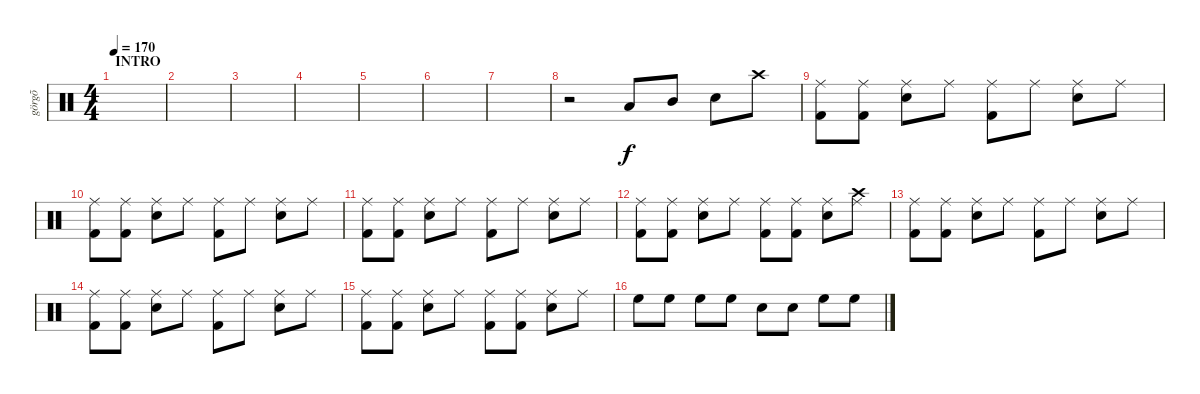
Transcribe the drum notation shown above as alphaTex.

\track ("görgõ" "görgõ") {instrument percussion}
\staff {score}
\articulation defaults
\ts (4 4)
\section ("" "INTRO")
\tempo 170
\clef neutral
\ks c
|
|
|
|
|
|
|
r.2 "Low Tom (hit)".8 "Mid Tom (hit)".8 "Snare (hit) 2".8 "Crash high (hit)".8 |
("Ride (middle)" "Kick (hit) 2").8 ("Ride (middle)" "Kick (hit) 2").8 ("Ride (middle)" "Snare (hit) 2").8 "Ride (middle)".8 ("Ride (middle)" "Kick (hit) 2").8 "Ride (middle)".8 ("Ride (middle)" "Snare (hit) 2").8 "Ride (middle)".8 |
("Ride (middle)" "Kick (hit) 2").8 ("Ride (middle)" "Kick (hit) 2").8 ("Ride (middle)" "Snare (hit) 2").8 "Ride (middle)".8 ("Ride (middle)" "Kick (hit) 2").8 "Ride (middle)".8 ("Ride (middle)" "Snare (hit) 2").8 "Ride (middle)".8 |
("Ride (middle)" "Kick (hit) 2").8 ("Ride (middle)" "Kick (hit) 2").8 ("Ride (middle)" "Snare (hit) 2").8 "Ride (middle)".8 ("Ride (middle)" "Kick (hit) 2").8 "Ride (middle)".8 ("Ride (middle)" "Snare (hit) 2").8 "Ride (middle)".8 |
("Ride (middle)" "Kick (hit) 2").8 ("Ride (middle)" "Kick (hit) 2").8 ("Ride (middle)" "Snare (hit) 2").8 "Ride (middle)".8 ("Ride (middle)" "Kick (hit) 2").8 ("Ride (middle)" "Kick (hit) 2").8 ("Ride (middle)" "Snare (hit) 2").8 ("Ride (middle)" "Crash high (hit)").8 |
("Ride (middle)" "Kick (hit) 2").8 ("Ride (middle)" "Kick (hit) 2").8 ("Ride (middle)" "Snare (hit) 2").8 "Ride (middle)".8 ("Ride (middle)" "Kick (hit) 2").8 "Ride (middle)".8 ("Ride (middle)" "Snare (hit) 2").8 "Ride (middle)".8 |
("Ride (middle)" "Kick (hit) 2").8 ("Ride (middle)" "Kick (hit) 2").8 ("Ride (middle)" "Snare (hit) 2").8 "Ride (middle)".8 ("Ride (middle)" "Kick (hit) 2").8 "Ride (middle)".8 ("Ride (middle)" "Snare (hit) 2").8 "Ride (middle)".8 |
("Ride (middle)" "Kick (hit) 2").8 ("Ride (middle)" "Kick (hit) 2").8 ("Ride (middle)" "Snare (hit) 2").8 "Ride (middle)".8 ("Ride (middle)" "Kick (hit) 2").8 ("Ride (middle)" "Kick (hit) 2").8 ("Ride (middle)" "Snare (hit) 2").8 "Ride (middle)".8 |
"High Floor Tom (hit)".8 "High Floor Tom (hit)".8 "High Floor Tom (hit)".8 "High Floor Tom (hit)".8 "Electric Snare (hit)".8 "Electric Snare (hit)".8 "High Floor Tom (hit)".8 "High Floor Tom (hit)".8
